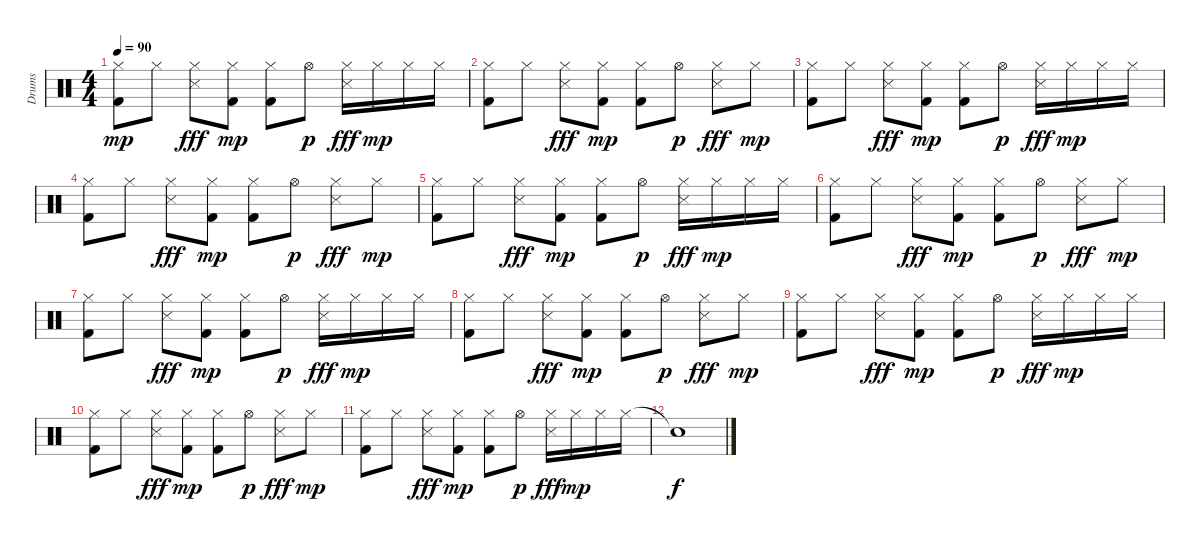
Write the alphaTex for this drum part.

\track ("Drums" "Drums") {instrument percussion}
\staff {score}
\articulation defaults
\ts (4 4)
\tempo 90
\clef neutral
\ks c
("Hi-Hat (closed)" "Kick (hit) 2").8{dy mp volume 7} "Hi-Hat (closed)".8 ("Hi-Hat (closed)" "Snare (side stick) 3").8{dy fff} ("Hi-Hat (closed)" "Kick (hit) 2").8{dy mp} ("Hi-Hat (closed)" "Kick (hit) 2").8 "Hi-Hat (open)".8{dy p} ("Hi-Hat (closed)" "Snare (side stick) 3").16{dy fff} "Hi-Hat (closed)".16{dy mp} "Hi-Hat (closed)".16 "Hi-Hat (closed)".16 |
("Hi-Hat (closed)" "Kick (hit) 2").8 "Hi-Hat (closed)".8 ("Hi-Hat (closed)" "Snare (side stick) 3").8{dy fff} ("Hi-Hat (closed)" "Kick (hit) 2").8{dy mp} ("Hi-Hat (closed)" "Kick (hit) 2").8 "Hi-Hat (open)".8{dy p} ("Hi-Hat (closed)" "Snare (side stick) 3").8{dy fff} "Hi-Hat (closed)".8{dy mp} |
("Hi-Hat (closed)" "Kick (hit) 2").8 "Hi-Hat (closed)".8 ("Hi-Hat (closed)" "Snare (side stick) 3").8{dy fff} ("Hi-Hat (closed)" "Kick (hit) 2").8{dy mp} ("Hi-Hat (closed)" "Kick (hit) 2").8 "Hi-Hat (open)".8{dy p} ("Hi-Hat (closed)" "Snare (side stick) 3").16{dy fff} "Hi-Hat (closed)".16{dy mp} "Hi-Hat (closed)".16 "Hi-Hat (closed)".16 |
("Hi-Hat (closed)" "Kick (hit) 2").8{volume 6} "Hi-Hat (closed)".8 ("Hi-Hat (closed)" "Snare (side stick) 3").8{dy fff} ("Hi-Hat (closed)" "Kick (hit) 2").8{dy mp} ("Hi-Hat (closed)" "Kick (hit) 2").8 "Hi-Hat (open)".8{dy p} ("Hi-Hat (closed)" "Snare (side stick) 3").8{dy fff} "Hi-Hat (closed)".8{dy mp} |
("Hi-Hat (closed)" "Kick (hit) 2").8 "Hi-Hat (closed)".8 ("Hi-Hat (closed)" "Snare (side stick) 3").8{dy fff} ("Hi-Hat (closed)" "Kick (hit) 2").8{dy mp} ("Hi-Hat (closed)" "Kick (hit) 2").8 "Hi-Hat (open)".8{dy p} ("Hi-Hat (closed)" "Snare (side stick) 3").16{dy fff} "Hi-Hat (closed)".16{dy mp} "Hi-Hat (closed)".16 "Hi-Hat (closed)".16 |
("Hi-Hat (closed)" "Kick (hit) 2").8{volume 5} "Hi-Hat (closed)".8 ("Hi-Hat (closed)" "Snare (side stick) 3").8{dy fff} ("Hi-Hat (closed)" "Kick (hit) 2").8{dy mp} ("Hi-Hat (closed)" "Kick (hit) 2").8 "Hi-Hat (open)".8{dy p} ("Hi-Hat (closed)" "Snare (side stick) 3").8{dy fff} "Hi-Hat (closed)".8{dy mp} |
("Hi-Hat (closed)" "Kick (hit) 2").8{volume 4} "Hi-Hat (closed)".8 ("Hi-Hat (closed)" "Snare (side stick) 3").8{dy fff} ("Hi-Hat (closed)" "Kick (hit) 2").8{dy mp} ("Hi-Hat (closed)" "Kick (hit) 2").8 "Hi-Hat (open)".8{dy p} ("Hi-Hat (closed)" "Snare (side stick) 3").16{dy fff} "Hi-Hat (closed)".16{dy mp} "Hi-Hat (closed)".16 "Hi-Hat (closed)".16 |
("Hi-Hat (closed)" "Kick (hit) 2").8{volume 3} "Hi-Hat (closed)".8 ("Hi-Hat (closed)" "Snare (side stick) 3").8{dy fff} ("Hi-Hat (closed)" "Kick (hit) 2").8{dy mp} ("Hi-Hat (closed)" "Kick (hit) 2").8 "Hi-Hat (open)".8{dy p} ("Hi-Hat (closed)" "Snare (side stick) 3").8{dy fff} "Hi-Hat (closed)".8{dy mp} |
("Hi-Hat (closed)" "Kick (hit) 2").8{volume 2} "Hi-Hat (closed)".8 ("Hi-Hat (closed)" "Snare (side stick) 3").8{dy fff} ("Hi-Hat (closed)" "Kick (hit) 2").8{dy mp} ("Hi-Hat (closed)" "Kick (hit) 2").8 "Hi-Hat (open)".8{dy p} ("Hi-Hat (closed)" "Snare (side stick) 3").16{dy fff} "Hi-Hat (closed)".16{dy mp} "Hi-Hat (closed)".16 "Hi-Hat (closed)".16 |
("Hi-Hat (closed)" "Kick (hit) 2").8{volume 1} "Hi-Hat (closed)".8 ("Hi-Hat (closed)" "Snare (side stick) 3").8{dy fff} ("Hi-Hat (closed)" "Kick (hit) 2").8{dy mp} ("Hi-Hat (closed)" "Kick (hit) 2").8 "Hi-Hat (open)".8{dy p} ("Hi-Hat (closed)" "Snare (side stick) 3").8{dy fff} "Hi-Hat (closed)".8{dy mp} |
("Hi-Hat (closed)" "Kick (hit) 2").8{volume 0} "Hi-Hat (closed)".8 ("Hi-Hat (closed)" "Snare (side stick) 3").8{dy fff} ("Hi-Hat (closed)" "Kick (hit) 2").8{dy mp} ("Hi-Hat (closed)" "Kick (hit) 2").8 "Hi-Hat (open)".8{dy p} ("Hi-Hat (closed)" "Snare (side stick) 3").16{dy fff} "Hi-Hat (closed)".16{dy mp} "Hi-Hat (closed)".16 "Hi-Hat (closed)".16 |
"Snare (hit)"{t}.1{dy f}
